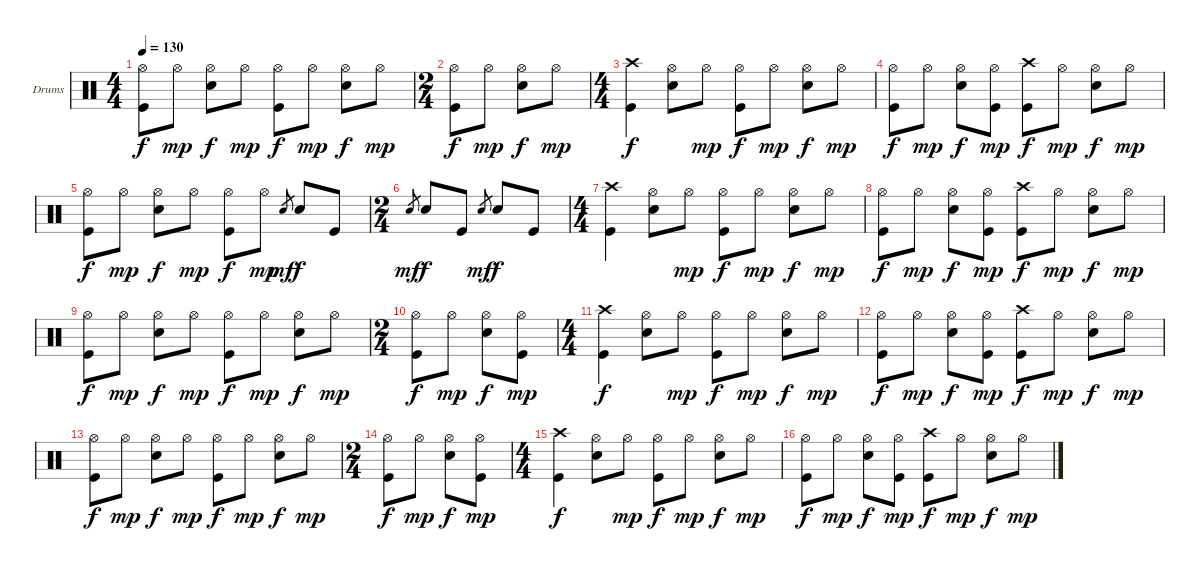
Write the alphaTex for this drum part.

\bracketExtendMode groupsimilarinstruments
\firstSystemTrackNameOrientation horizontal
\otherSystemsTrackNameOrientation horizontal
\track ("Drumkit" "Drums") {instrument percussion}
\staff {score}
\articulation defaults
\ts (4 4)
\tempo 130
\clef neutral
\ks c
("Hi-Hat (open)" "Kick (hit)").8{dy f} "Hi-Hat (open)".8{dy mp} ("Hi-Hat (open)" "Snare (hit) 2").8{dy f} "Hi-Hat (open)".8{dy mp} ("Hi-Hat (open)" "Kick (hit)").8{dy f} "Hi-Hat (open)".8{dy mp} ("Hi-Hat (open)" "Snare (hit) 2").8{dy f} "Hi-Hat (open)".8{dy mp} |
\ts (2 4)
\beaming (8 2 2 2 2)
("Hi-Hat (open)" "Kick (hit)").8{dy f} "Hi-Hat (open)".8{dy mp} ("Hi-Hat (open)" "Snare (hit) 2").8{dy f} "Hi-Hat (open)".8{dy mp} |
\ts (4 4)
\beaming (8 2 2 2 2)
("Crash high (hit)" "Kick (hit)").4{dy f} ("Hi-Hat (open)" "Snare (hit) 2").8 "Hi-Hat (open)".8{dy mp} ("Hi-Hat (open)" "Kick (hit)").8{dy f} "Hi-Hat (open)".8{dy mp} ("Hi-Hat (open)" "Snare (hit) 2").8{dy f} "Hi-Hat (open)".8{dy mp} |
("Hi-Hat (open)" "Kick (hit)").8{dy f} "Hi-Hat (open)".8{dy mp} ("Hi-Hat (open)" "Snare (hit) 2").8{dy f} ("Hi-Hat (open)" "Kick (hit)").8{dy mp} ("Crash high (hit)" "Kick (hit)").8{dy f} "Hi-Hat (open)".8{dy mp} ("Hi-Hat (open)" "Snare (hit) 2").8{dy f} "Hi-Hat (open)".8{dy mp} |
("Hi-Hat (open)" "Kick (hit)").8{dy f} "Hi-Hat (open)".8{dy mp} ("Hi-Hat (open)" "Snare (hit) 2").8{dy f} "Hi-Hat (open)".8{dy mp} ("Hi-Hat (open)" "Kick (hit)").8{dy f} "Hi-Hat (open)".8{dy mp} "Snare (hit) 2".8{gr dy mf} "Snare (hit) 2".8{dy f} "Kick (hit)".8 |
\ts (2 4)
\beaming (8 2 2 2 2)
"Snare (hit) 2".8{gr dy mf} "Snare (hit) 2".8{dy f} "Kick (hit)".8 "Snare (hit) 2".8{gr dy mf} "Snare (hit) 2".8{dy f} "Kick (hit)".8 |
\ts (4 4)
\beaming (8 2 2 2 2)
("Crash high (hit)" "Kick (hit)").4 ("Hi-Hat (open)" "Snare (hit) 2").8 "Hi-Hat (open)".8{dy mp} ("Hi-Hat (open)" "Kick (hit)").8{dy f} "Hi-Hat (open)".8{dy mp} ("Hi-Hat (open)" "Snare (hit) 2").8{dy f} "Hi-Hat (open)".8{dy mp} |
("Hi-Hat (open)" "Kick (hit)").8{dy f} "Hi-Hat (open)".8{dy mp} ("Hi-Hat (open)" "Snare (hit) 2").8{dy f} ("Hi-Hat (open)" "Kick (hit)").8{dy mp} ("Crash high (hit)" "Kick (hit)").8{dy f} "Hi-Hat (open)".8{dy mp} ("Hi-Hat (open)" "Snare (hit) 2").8{dy f} "Hi-Hat (open)".8{dy mp} |
("Hi-Hat (open)" "Kick (hit)").8{dy f} "Hi-Hat (open)".8{dy mp} ("Hi-Hat (open)" "Snare (hit) 2").8{dy f} "Hi-Hat (open)".8{dy mp} ("Hi-Hat (open)" "Kick (hit)").8{dy f} "Hi-Hat (open)".8{dy mp} ("Hi-Hat (open)" "Snare (hit) 2").8{dy f} "Hi-Hat (open)".8{dy mp} |
\ts (2 4)
\beaming (8 2 2 2 2)
("Hi-Hat (open)" "Kick (hit)").8{dy f} "Hi-Hat (open)".8{dy mp} ("Hi-Hat (open)" "Snare (hit) 2").8{dy f} ("Hi-Hat (open)" "Kick (hit)").8{dy mp} |
\ts (4 4)
\beaming (8 2 2 2 2)
("Crash high (hit)" "Kick (hit)").4{dy f} ("Hi-Hat (open)" "Snare (hit) 2").8 "Hi-Hat (open)".8{dy mp} ("Hi-Hat (open)" "Kick (hit)").8{dy f} "Hi-Hat (open)".8{dy mp} ("Hi-Hat (open)" "Snare (hit) 2").8{dy f} "Hi-Hat (open)".8{dy mp} |
("Hi-Hat (open)" "Kick (hit)").8{dy f} "Hi-Hat (open)".8{dy mp} ("Hi-Hat (open)" "Snare (hit) 2").8{dy f} ("Hi-Hat (open)" "Kick (hit)").8{dy mp} ("Crash high (hit)" "Kick (hit)").8{dy f} "Hi-Hat (open)".8{dy mp} ("Hi-Hat (open)" "Snare (hit) 2").8{dy f} "Hi-Hat (open)".8{dy mp} |
("Hi-Hat (open)" "Kick (hit)").8{dy f} "Hi-Hat (open)".8{dy mp} ("Hi-Hat (open)" "Snare (hit) 2").8{dy f} "Hi-Hat (open)".8{dy mp} ("Hi-Hat (open)" "Kick (hit)").8{dy f} "Hi-Hat (open)".8{dy mp} ("Hi-Hat (open)" "Snare (hit) 2").8{dy f} "Hi-Hat (open)".8{dy mp} |
\ts (2 4)
\beaming (8 2 2 2 2)
("Hi-Hat (open)" "Kick (hit)").8{dy f} "Hi-Hat (open)".8{dy mp} ("Hi-Hat (open)" "Snare (hit) 2").8{dy f} ("Hi-Hat (open)" "Kick (hit)").8{dy mp} |
\ts (4 4)
\beaming (8 2 2 2 2)
("Crash high (hit)" "Kick (hit)").4{dy f} ("Hi-Hat (open)" "Snare (hit) 2").8 "Hi-Hat (open)".8{dy mp} ("Hi-Hat (open)" "Kick (hit)").8{dy f} "Hi-Hat (open)".8{dy mp} ("Hi-Hat (open)" "Snare (hit) 2").8{dy f} "Hi-Hat (open)".8{dy mp} |
("Hi-Hat (open)" "Kick (hit)").8{dy f} "Hi-Hat (open)".8{dy mp} ("Hi-Hat (open)" "Snare (hit) 2").8{dy f} ("Hi-Hat (open)" "Kick (hit)").8{dy mp} ("Crash high (hit)" "Kick (hit)").8{dy f} "Hi-Hat (open)".8{dy mp} ("Hi-Hat (open)" "Snare (hit) 2").8{dy f} "Hi-Hat (open)".8{dy mp}
